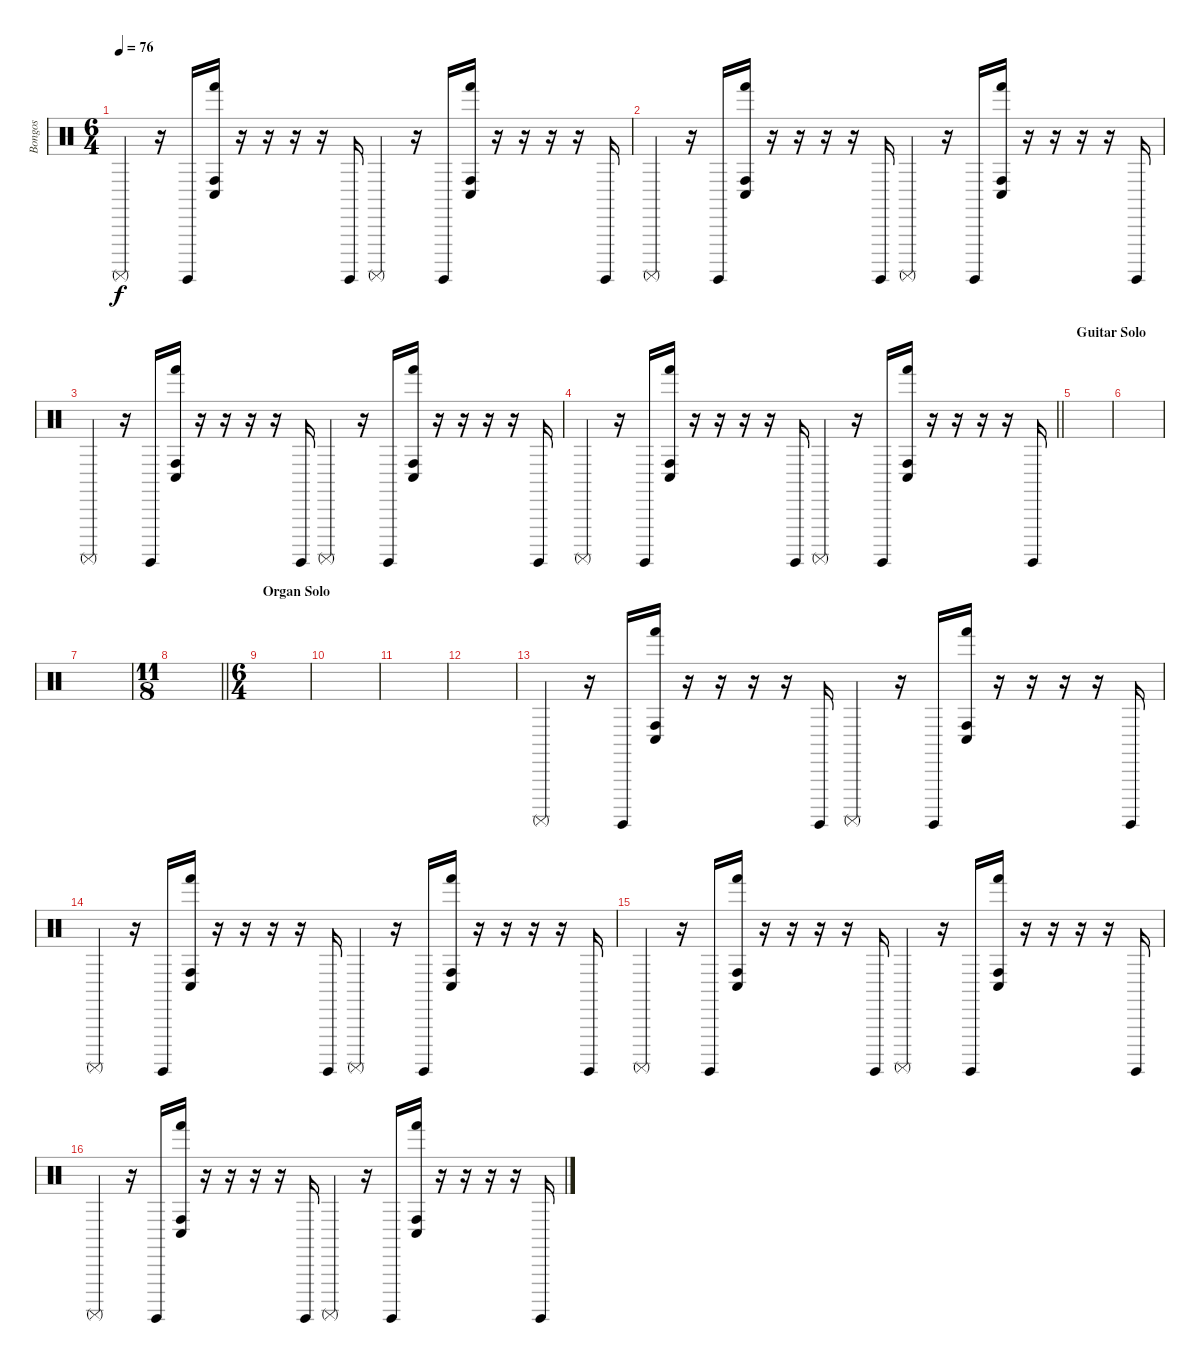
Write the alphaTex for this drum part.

\track ("Bongos" "Bongos") {mute instrument percussion}
\staff {score}
\articulation defaults
\ts (6 4)
\tempo 76
\clef neutral
\ks c "Surdo (mute)".4{dy f}
r.16 "Surdo (hit)".16 ("Hand (hit)" "Conga high (hit)" "Conga low (hit)").16 r.16 r.16 r.16 r.16 "Surdo (hit)".16 "Surdo (mute)".4 r.16 "Surdo (hit)".16 ("Hand (hit)" "Conga high (hit)" "Conga low (hit)").16 r.16 r.16 r.16 r.16 "Surdo (hit)".16 |
"Surdo (mute)".4 r.16 "Surdo (hit)".16 ("Hand (hit)" "Conga high (hit)" "Conga low (hit)").16 r.16 r.16 r.16 r.16 "Surdo (hit)".16 "Surdo (mute)".4 r.16 "Surdo (hit)".16 ("Hand (hit)" "Conga high (hit)" "Conga low (hit)").16 r.16 r.16 r.16 r.16 "Surdo (hit)".16 |
"Surdo (mute)".4 r.16 "Surdo (hit)".16 ("Hand (hit)" "Conga high (hit)" "Conga low (hit)").16 r.16 r.16 r.16 r.16 "Surdo (hit)".16 "Surdo (mute)".4 r.16 "Surdo (hit)".16 ("Hand (hit)" "Conga high (hit)" "Conga low (hit)").16 r.16 r.16 r.16 r.16 "Surdo (hit)".16 |
\barLineRight lightlight "Surdo (mute)".4
r.16 "Surdo (hit)".16 ("Hand (hit)" "Conga high (hit)" "Conga low (hit)").16 r.16 r.16 r.16 r.16 "Surdo (hit)".16 "Surdo (mute)".4 r.16 "Surdo (hit)".16 ("Hand (hit)" "Conga high (hit)" "Conga low (hit)").16 r.16 r.16 r.16 r.16 "Surdo (hit)".16 |
\section ("" "Guitar Solo")
|
|
|
\ts (11 8)
\barLineRight lightlight
|
\ts (6 4)
\section ("" "Organ Solo")
|
|
|
|
"Surdo (mute)".4 r.16 "Surdo (hit)".16 ("Hand (hit)" "Conga high (hit)" "Conga low (hit)").16 r.16 r.16 r.16 r.16 "Surdo (hit)".16 "Surdo (mute)".4 r.16 "Surdo (hit)".16 ("Hand (hit)" "Conga high (hit)" "Conga low (hit)").16 r.16 r.16 r.16 r.16 "Surdo (hit)".16 |
"Surdo (mute)".4 r.16 "Surdo (hit)".16 ("Hand (hit)" "Conga high (hit)" "Conga low (hit)").16 r.16 r.16 r.16 r.16 "Surdo (hit)".16 "Surdo (mute)".4 r.16 "Surdo (hit)".16 ("Hand (hit)" "Conga high (hit)" "Conga low (hit)").16 r.16 r.16 r.16 r.16 "Surdo (hit)".16 |
"Surdo (mute)".4 r.16 "Surdo (hit)".16 ("Hand (hit)" "Conga high (hit)" "Conga low (hit)").16 r.16 r.16 r.16 r.16 "Surdo (hit)".16 "Surdo (mute)".4 r.16 "Surdo (hit)".16 ("Hand (hit)" "Conga high (hit)" "Conga low (hit)").16 r.16 r.16 r.16 r.16 "Surdo (hit)".16 |
"Surdo (mute)".4 r.16 "Surdo (hit)".16 ("Hand (hit)" "Conga high (hit)" "Conga low (hit)").16 r.16 r.16 r.16 r.16 "Surdo (hit)".16 "Surdo (mute)".4 r.16 "Surdo (hit)".16 ("Hand (hit)" "Conga high (hit)" "Conga low (hit)").16 r.16 r.16 r.16 r.16 "Surdo (hit)".16
